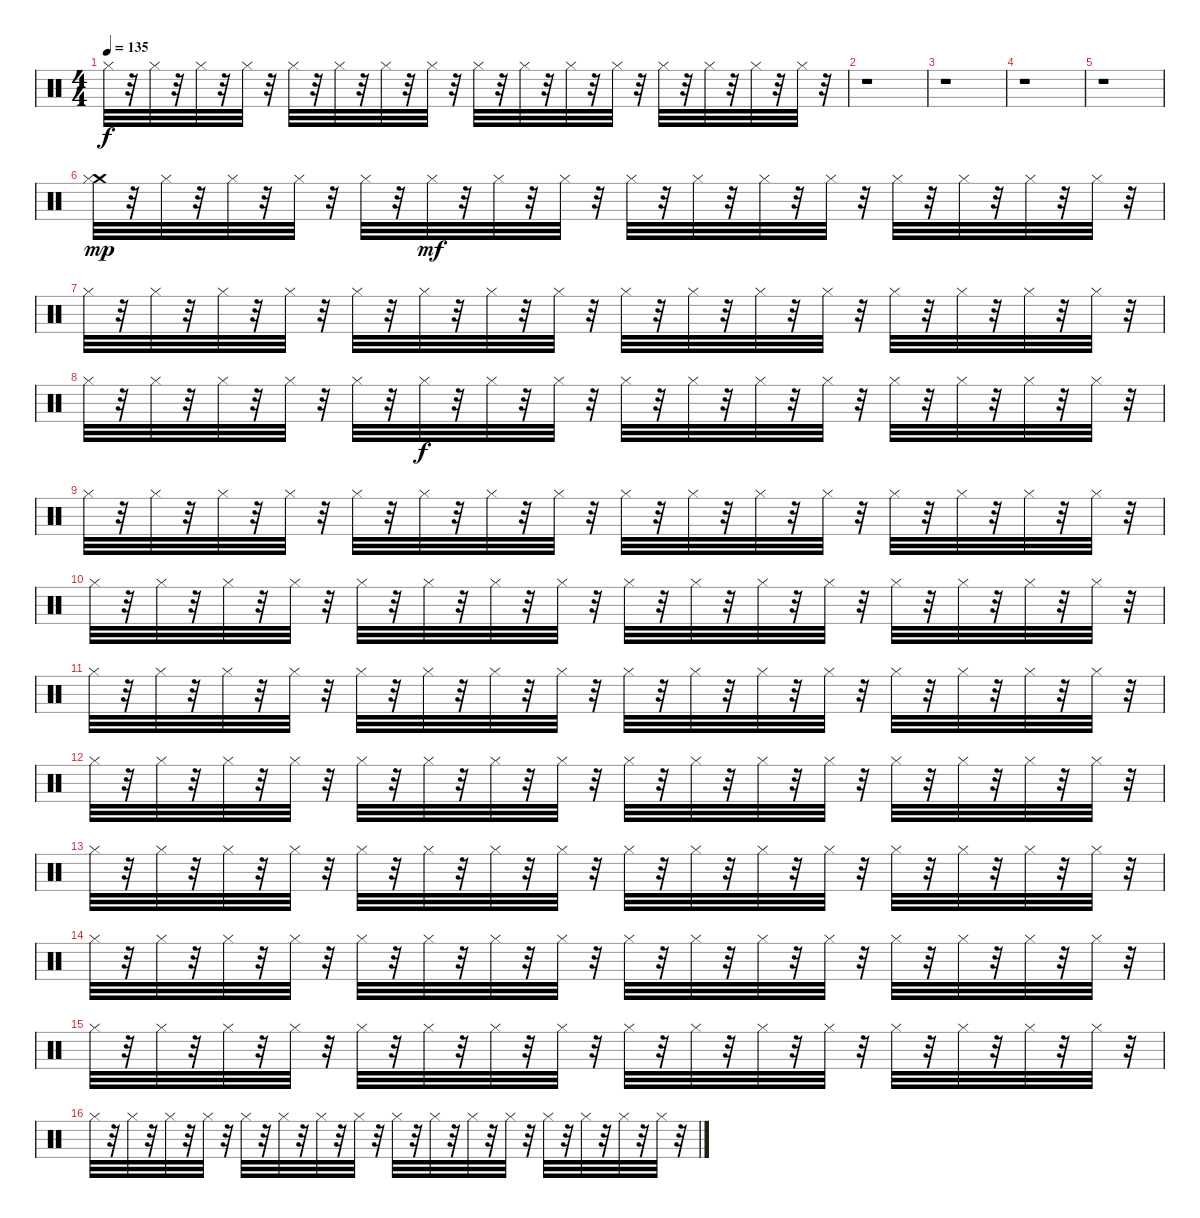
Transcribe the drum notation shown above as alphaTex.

\track "" {instrument percussion}
\staff {score}
\articulation defaults
\ts (4 4)
\tempo 135
\clef neutral
\ks c "Hi-Hat (closed)".32{dy f}
r.32 "Hi-Hat (closed)".32 r.32 "Hi-Hat (closed)".32 r.32 "Hi-Hat (closed)".32 r.32 "Hi-Hat (closed)".32 r.32 "Hi-Hat (closed)".32 r.32 "Hi-Hat (closed)".32 r.32 "Hi-Hat (closed)".32 r.32 "Hi-Hat (closed)".32 r.32 "Hi-Hat (closed)".32 r.32 "Hi-Hat (closed)".32 r.32 "Hi-Hat (closed)".32 r.32 "Hi-Hat (closed)".32 r.32 "Hi-Hat (closed)".32 r.32 "Hi-Hat (closed)".32 r.32 "Hi-Hat (closed)".32 r.32 |
r.1 |
r.1 |
r.1 |
r.1 |
("Crash medium (hit)" "Hi-Hat (closed)").32{dy mp} r.32 "Hi-Hat (closed)".32 r.32 "Hi-Hat (closed)".32 r.32 "Hi-Hat (closed)".32 r.32 "Hi-Hat (closed)".32 r.32 "Hi-Hat (closed)".32{dy mf} r.32 "Hi-Hat (closed)".32 r.32 "Hi-Hat (closed)".32 r.32 "Hi-Hat (closed)".32 r.32 "Hi-Hat (closed)".32 r.32 "Hi-Hat (closed)".32 r.32 "Hi-Hat (closed)".32 r.32 "Hi-Hat (closed)".32 r.32 "Hi-Hat (closed)".32 r.32 "Hi-Hat (closed)".32 r.32 "Hi-Hat (closed)".32 r.32 |
"Hi-Hat (closed)".32 r.32 "Hi-Hat (closed)".32 r.32 "Hi-Hat (closed)".32 r.32 "Hi-Hat (closed)".32 r.32 "Hi-Hat (closed)".32 r.32 "Hi-Hat (closed)".32 r.32 "Hi-Hat (closed)".32 r.32 "Hi-Hat (closed)".32 r.32 "Hi-Hat (closed)".32 r.32 "Hi-Hat (closed)".32 r.32 "Hi-Hat (closed)".32 r.32 "Hi-Hat (closed)".32 r.32 "Hi-Hat (closed)".32 r.32 "Hi-Hat (closed)".32 r.32 "Hi-Hat (closed)".32 r.32 "Hi-Hat (closed)".32 r.32 |
"Hi-Hat (closed)".32 r.32 "Hi-Hat (closed)".32 r.32 "Hi-Hat (closed)".32 r.32 "Hi-Hat (closed)".32 r.32 "Hi-Hat (closed)".32 r.32 "Hi-Hat (closed)".32{dy f} r.32 "Hi-Hat (closed)".32 r.32 "Hi-Hat (closed)".32 r.32 "Hi-Hat (closed)".32 r.32 "Hi-Hat (closed)".32 r.32 "Hi-Hat (closed)".32 r.32 "Hi-Hat (closed)".32 r.32 "Hi-Hat (closed)".32 r.32 "Hi-Hat (closed)".32 r.32 "Hi-Hat (closed)".32 r.32 "Hi-Hat (closed)".32 r.32 |
"Hi-Hat (closed)".32 r.32 "Hi-Hat (closed)".32 r.32 "Hi-Hat (closed)".32 r.32 "Hi-Hat (closed)".32 r.32 "Hi-Hat (closed)".32 r.32 "Hi-Hat (closed)".32 r.32 "Hi-Hat (closed)".32 r.32 "Hi-Hat (closed)".32 r.32 "Hi-Hat (closed)".32 r.32 "Hi-Hat (closed)".32 r.32 "Hi-Hat (closed)".32 r.32 "Hi-Hat (closed)".32 r.32 "Hi-Hat (closed)".32 r.32 "Hi-Hat (closed)".32 r.32 "Hi-Hat (closed)".32 r.32 "Hi-Hat (closed)".32 r.32 |
"Hi-Hat (closed)".32 r.32 "Hi-Hat (closed)".32 r.32 "Hi-Hat (closed)".32 r.32 "Hi-Hat (closed)".32 r.32 "Hi-Hat (closed)".32 r.32 "Hi-Hat (closed)".32 r.32 "Hi-Hat (closed)".32 r.32 "Hi-Hat (closed)".32 r.32 "Hi-Hat (closed)".32 r.32 "Hi-Hat (closed)".32 r.32 "Hi-Hat (closed)".32 r.32 "Hi-Hat (closed)".32 r.32 "Hi-Hat (closed)".32 r.32 "Hi-Hat (closed)".32 r.32 "Hi-Hat (closed)".32 r.32 "Hi-Hat (closed)".32 r.32 |
"Hi-Hat (closed)".32 r.32 "Hi-Hat (closed)".32 r.32 "Hi-Hat (closed)".32 r.32 "Hi-Hat (closed)".32 r.32 "Hi-Hat (closed)".32 r.32 "Hi-Hat (closed)".32 r.32 "Hi-Hat (closed)".32 r.32 "Hi-Hat (closed)".32 r.32 "Hi-Hat (closed)".32 r.32 "Hi-Hat (closed)".32 r.32 "Hi-Hat (closed)".32 r.32 "Hi-Hat (closed)".32 r.32 "Hi-Hat (closed)".32 r.32 "Hi-Hat (closed)".32 r.32 "Hi-Hat (closed)".32 r.32 "Hi-Hat (closed)".32 r.32 |
"Hi-Hat (closed)".32 r.32 "Hi-Hat (closed)".32 r.32 "Hi-Hat (closed)".32 r.32 "Hi-Hat (closed)".32 r.32 "Hi-Hat (closed)".32 r.32 "Hi-Hat (closed)".32 r.32 "Hi-Hat (closed)".32 r.32 "Hi-Hat (closed)".32 r.32 "Hi-Hat (closed)".32 r.32 "Hi-Hat (closed)".32 r.32 "Hi-Hat (closed)".32 r.32 "Hi-Hat (closed)".32 r.32 "Hi-Hat (closed)".32 r.32 "Hi-Hat (closed)".32 r.32 "Hi-Hat (closed)".32 r.32 "Hi-Hat (closed)".32 r.32 |
"Hi-Hat (closed)".32 r.32 "Hi-Hat (closed)".32 r.32 "Hi-Hat (closed)".32 r.32 "Hi-Hat (closed)".32 r.32 "Hi-Hat (closed)".32 r.32 "Hi-Hat (closed)".32 r.32 "Hi-Hat (closed)".32 r.32 "Hi-Hat (closed)".32 r.32 "Hi-Hat (closed)".32 r.32 "Hi-Hat (closed)".32 r.32 "Hi-Hat (closed)".32 r.32 "Hi-Hat (closed)".32 r.32 "Hi-Hat (closed)".32 r.32 "Hi-Hat (closed)".32 r.32 "Hi-Hat (closed)".32 r.32 "Hi-Hat (closed)".32 r.32 |
"Hi-Hat (closed)".32 r.32 "Hi-Hat (closed)".32 r.32 "Hi-Hat (closed)".32 r.32 "Hi-Hat (closed)".32 r.32 "Hi-Hat (closed)".32 r.32 "Hi-Hat (closed)".32 r.32 "Hi-Hat (closed)".32 r.32 "Hi-Hat (closed)".32 r.32 "Hi-Hat (closed)".32 r.32 "Hi-Hat (closed)".32 r.32 "Hi-Hat (closed)".32 r.32 "Hi-Hat (closed)".32 r.32 "Hi-Hat (closed)".32 r.32 "Hi-Hat (closed)".32 r.32 "Hi-Hat (closed)".32 r.32 "Hi-Hat (closed)".32 r.32 |
"Hi-Hat (closed)".32 r.32 "Hi-Hat (closed)".32 r.32 "Hi-Hat (closed)".32 r.32 "Hi-Hat (closed)".32 r.32 "Hi-Hat (closed)".32 r.32 "Hi-Hat (closed)".32 r.32 "Hi-Hat (closed)".32 r.32 "Hi-Hat (closed)".32 r.32 "Hi-Hat (closed)".32 r.32 "Hi-Hat (closed)".32 r.32 "Hi-Hat (closed)".32 r.32 "Hi-Hat (closed)".32 r.32 "Hi-Hat (closed)".32 r.32 "Hi-Hat (closed)".32 r.32 "Hi-Hat (closed)".32 r.32 "Hi-Hat (closed)".32 r.32 |
"Hi-Hat (closed)".32 r.32 "Hi-Hat (closed)".32 r.32 "Hi-Hat (closed)".32 r.32 "Hi-Hat (closed)".32 r.32 "Hi-Hat (closed)".32 r.32 "Hi-Hat (closed)".32 r.32 "Hi-Hat (closed)".32 r.32 "Hi-Hat (closed)".32 r.32 "Hi-Hat (closed)".32 r.32 "Hi-Hat (closed)".32 r.32 "Hi-Hat (closed)".32 r.32 "Hi-Hat (closed)".32 r.32 "Hi-Hat (closed)".32 r.32 "Hi-Hat (closed)".32 r.32 "Hi-Hat (closed)".32 r.32 "Hi-Hat (closed)".32 r.32
